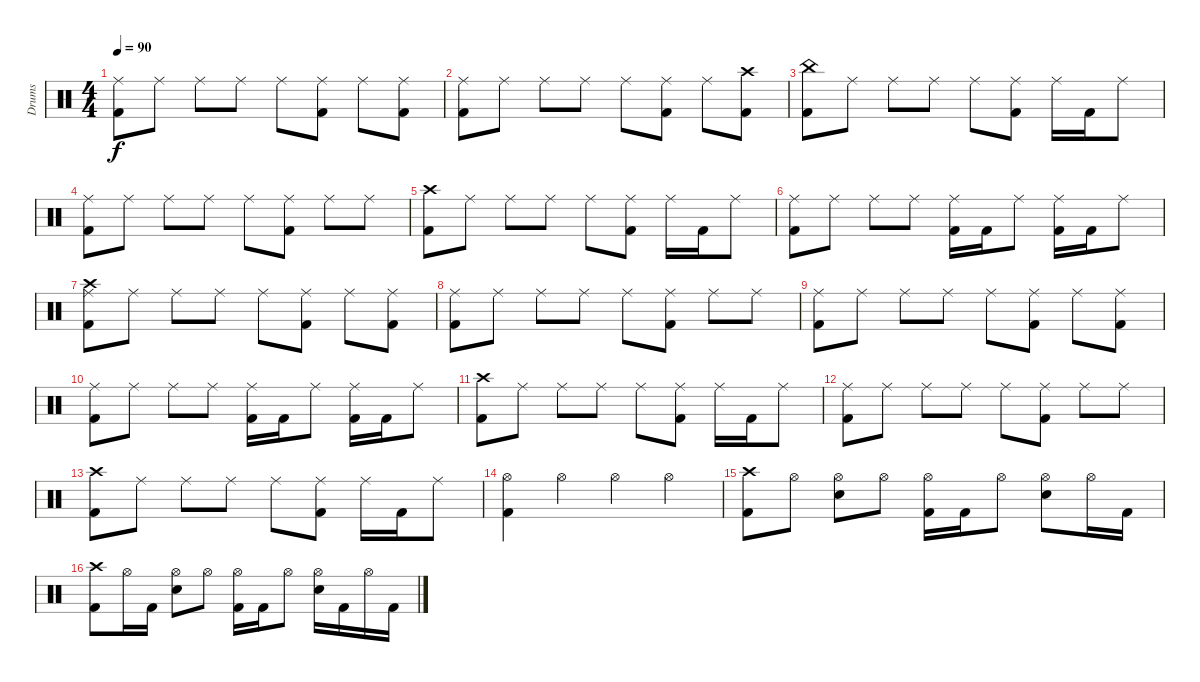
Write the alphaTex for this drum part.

\track ("Drums" "Drums") {instrument percussion}
\staff {score}
\articulation defaults
\ts (4 4)
\tempo 90
\clef neutral
\ks c
("Ride (middle)" "Kick (hit) 2").8{dy f} "Ride (middle)".8 "Ride (middle)".8 "Ride (middle)".8 "Ride (middle)".8 ("Ride (middle)" "Kick (hit) 2").8 "Ride (middle)".8 ("Ride (middle)" "Kick (hit) 2").8 |
("Ride (middle)" "Kick (hit) 2").8 "Ride (middle)".8 "Ride (middle)".8 "Ride (middle)".8 "Ride (middle)".8 ("Ride (middle)" "Kick (hit) 2").8 "Ride (middle)".8 ("Crash high (hit)" "Kick (hit) 2").8 |
("China (hit)" "Kick (hit) 2").8 "Ride (middle)".8 "Ride (middle)".8 "Ride (middle)".8 "Ride (middle)".8 ("Ride (middle)" "Kick (hit) 2").8 "Ride (middle)".16 "Kick (hit) 2".16 "Ride (middle)".8 |
("Ride (middle)" "Kick (hit) 2").8 "Ride (middle)".8 "Ride (middle)".8 "Ride (middle)".8 "Ride (middle)".8 ("Ride (middle)" "Kick (hit) 2").8 "Ride (middle)".8 "Ride (middle)".8 |
("Crash high (hit)" "Kick (hit) 2").8 "Ride (middle)".8 "Ride (middle)".8 "Ride (middle)".8 "Ride (middle)".8 ("Ride (middle)" "Kick (hit) 2").8 "Ride (middle)".16 "Kick (hit) 2".16 "Ride (middle)".8 |
("Ride (middle)" "Kick (hit) 2").8 "Ride (middle)".8 "Ride (middle)".8 "Ride (middle)".8 ("Ride (middle)" "Kick (hit) 2").16 "Kick (hit) 2".16 "Ride (middle)".8 ("Ride (middle)" "Kick (hit) 2").16 "Kick (hit) 2".16 "Ride (middle)".8 |
("Crash high (hit)" "Ride (middle)" "Kick (hit) 2").8 "Ride (middle)".8 "Ride (middle)".8 "Ride (middle)".8 "Ride (middle)".8 ("Ride (middle)" "Kick (hit) 2").8 "Ride (middle)".8 ("Ride (middle)" "Kick (hit) 2").8 |
("Ride (middle)" "Kick (hit) 2").8 "Ride (middle)".8 "Ride (middle)".8 "Ride (middle)".8 "Ride (middle)".8 ("Ride (middle)" "Kick (hit) 2").8 "Ride (middle)".8 "Ride (middle)".8 |
("Ride (middle)" "Kick (hit) 2").8 "Ride (middle)".8 "Ride (middle)".8 "Ride (middle)".8 "Ride (middle)".8 ("Ride (middle)" "Kick (hit) 2").8 "Ride (middle)".8 ("Ride (middle)" "Kick (hit) 2").8 |
("Ride (middle)" "Kick (hit) 2").8 "Ride (middle)".8 "Ride (middle)".8 "Ride (middle)".8 ("Ride (middle)" "Kick (hit) 2").16 "Kick (hit) 2".16 "Ride (middle)".8 ("Ride (middle)" "Kick (hit) 2").16 "Kick (hit) 2".16 "Ride (middle)".8 |
("Crash high (hit)" "Kick (hit) 2").8 "Ride (middle)".8 "Ride (middle)".8 "Ride (middle)".8 "Ride (middle)".8 ("Ride (middle)" "Kick (hit) 2").8 "Ride (middle)".16 "Kick (hit) 2".16 "Ride (middle)".8 |
("Ride (middle)" "Kick (hit) 2").8 "Ride (middle)".8 "Ride (middle)".8 "Ride (middle)".8 "Ride (middle)".8 ("Ride (middle)" "Kick (hit) 2").8 "Ride (middle)".8 "Ride (middle)".8 |
("Crash high (hit)" "Kick (hit) 2").8 "Ride (middle)".8 "Ride (middle)".8 "Ride (middle)".8 "Ride (middle)".8 ("Ride (middle)" "Kick (hit) 2").8 "Ride (middle)".16 "Kick (hit) 2".16 "Ride (middle)".8 |
("Hi-Hat (open)" "Kick (hit) 2").4 "Hi-Hat (open)".4 "Hi-Hat (open)".4 "Hi-Hat (open)".4 |
("Crash high (hit)" "Kick (hit) 2").8 "Hi-Hat (open)".8 ("Hi-Hat (open)" "Electric Snare (hit)").8 "Hi-Hat (open)".8 ("Hi-Hat (open)" "Kick (hit) 2").16 "Kick (hit) 2".16 "Hi-Hat (open)".8 ("Hi-Hat (open)" "Electric Snare (hit)").8 "Hi-Hat (open)".16 "Kick (hit) 2".16 |
("Crash high (hit)" "Kick (hit) 2").8 "Hi-Hat (open)".16 "Kick (hit) 2".16 ("Hi-Hat (open)" "Electric Snare (hit)").8 "Hi-Hat (open)".8 ("Hi-Hat (open)" "Kick (hit) 2").16 "Kick (hit) 2".16 "Hi-Hat (open)".8 ("Hi-Hat (open)" "Electric Snare (hit)").16 "Kick (hit) 2".16 "Hi-Hat (open)".16 "Kick (hit) 2".16
